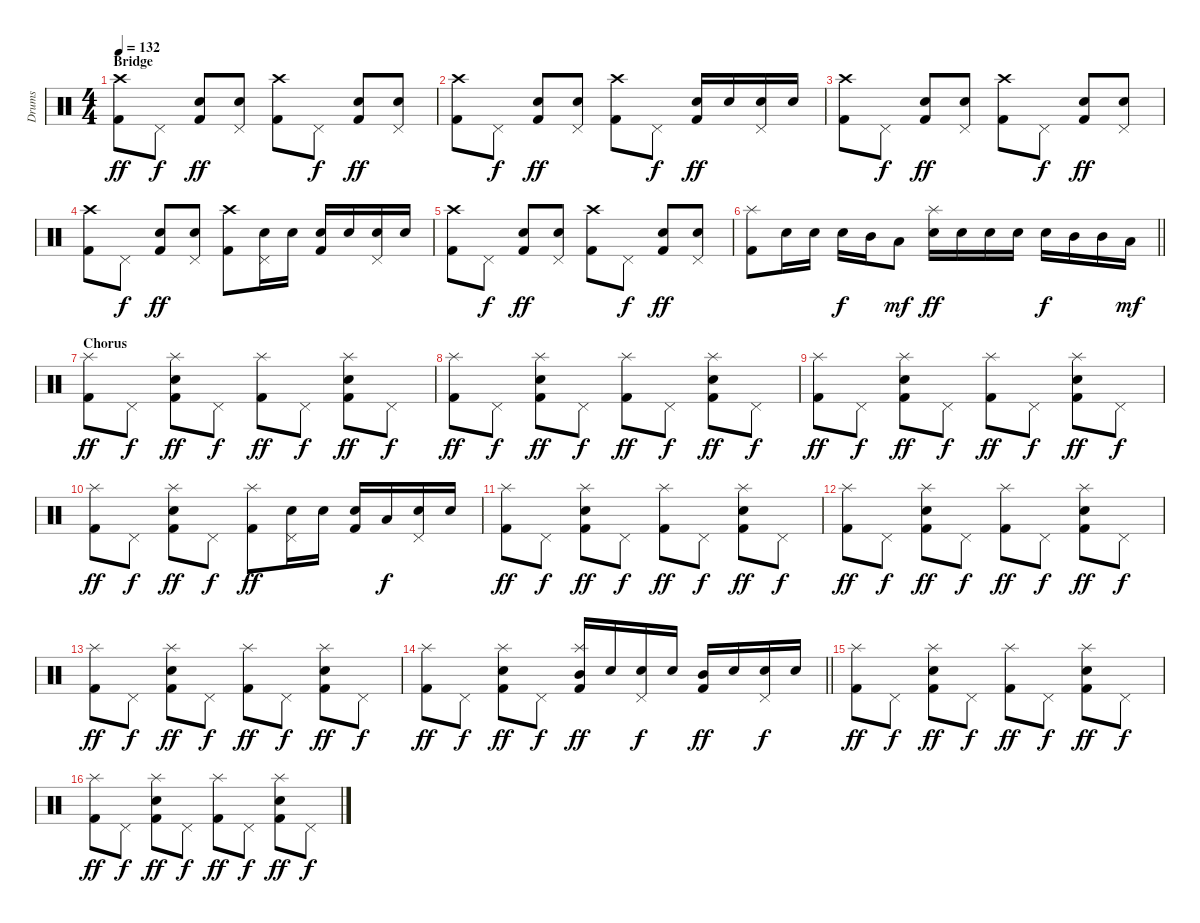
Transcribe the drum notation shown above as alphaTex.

\track ("Drums" "Drums") {instrument percussion}
\staff {score}
\articulation defaults
\ts (4 4)
\section ("" "Bridge")
\tempo 132
\clef neutral
\ks c
("Crash high (hit)" "Kick (hit) 2").8{dy ff} "Pedal Hi-Hat (hit)".8{dy f} ("Snare (hit) 2" "Kick (hit) 2").8{dy ff} ("Pedal Hi-Hat (hit)" "Snare (hit) 2").8 ("Crash high (hit)" "Kick (hit) 2").8 "Pedal Hi-Hat (hit)".8{dy f} ("Snare (hit) 2" "Kick (hit) 2").8{dy ff} ("Pedal Hi-Hat (hit)" "Snare (hit) 2").8 |
("Crash high (hit)" "Kick (hit) 2").8 "Pedal Hi-Hat (hit)".8{dy f} ("Snare (hit) 2" "Kick (hit) 2").8{dy ff} ("Pedal Hi-Hat (hit)" "Snare (hit) 2").8 ("Crash high (hit)" "Kick (hit) 2").8 "Pedal Hi-Hat (hit)".8{dy f} ("Snare (hit) 2" "Kick (hit) 2").16{dy ff} "Snare (hit) 2".16 ("Pedal Hi-Hat (hit)" "Snare (hit) 2").16 "Snare (hit) 2".16 |
("Crash high (hit)" "Kick (hit) 2").8 "Pedal Hi-Hat (hit)".8{dy f} ("Snare (hit) 2" "Kick (hit) 2").8{dy ff} ("Pedal Hi-Hat (hit)" "Snare (hit) 2").8 ("Crash high (hit)" "Kick (hit) 2").8 "Pedal Hi-Hat (hit)".8{dy f} ("Snare (hit) 2" "Kick (hit) 2").8{dy ff} ("Pedal Hi-Hat (hit)" "Snare (hit) 2").8 |
("Crash high (hit)" "Kick (hit) 2").8 "Pedal Hi-Hat (hit)".8{dy f} ("Snare (hit) 2" "Kick (hit) 2").8{dy ff} ("Pedal Hi-Hat (hit)" "Snare (hit) 2").8 ("Crash high (hit)" "Kick (hit) 2").8 ("Pedal Hi-Hat (hit)" "Snare (hit) 2").16 "Snare (hit) 2".16 ("Snare (hit) 2" "Kick (hit) 2").16 "Snare (hit) 2".16 ("Pedal Hi-Hat (hit)" "Snare (hit) 2").16 "Snare (hit) 2".16 |
("Crash high (hit)" "Kick (hit) 2").8 "Pedal Hi-Hat (hit)".8{dy f} ("Snare (hit) 2" "Kick (hit) 2").8{dy ff} ("Pedal Hi-Hat (hit)" "Snare (hit) 2").8 ("Crash high (hit)" "Kick (hit) 2").8 "Pedal Hi-Hat (hit)".8{dy f} ("Snare (hit) 2" "Kick (hit) 2").8{dy ff} ("Pedal Hi-Hat (hit)" "Snare (hit) 2").8 |
\barLineRight lightlight
("Splash (hit)" "Kick (hit) 2").8 "Snare (hit) 2".16 "Snare (hit) 2".16 "Snare (hit) 2".16{dy f} "Mid Tom (hit)".16 "Low Tom (hit)".8{dy mf} ("Splash (hit)" "Snare (hit) 2").16{dy ff} "Snare (hit) 2".16 "Snare (hit) 2".16 "Snare (hit) 2".16 "Snare (hit) 2".16{dy f} "Mid Tom (hit)".16 "Mid Tom (hit)".16 "Low Tom (hit)".16{dy mf} |
\section ("" "Chorus")
("Splash (hit)" "Kick (hit) 2").8{dy ff} "Pedal Hi-Hat (hit)".8{dy f} ("Splash (hit)" "Snare (hit) 2" "Kick (hit) 2").8{dy ff} "Pedal Hi-Hat (hit)".8{dy f} ("Splash (hit)" "Kick (hit) 2").8{dy ff} "Pedal Hi-Hat (hit)".8{dy f} ("Splash (hit)" "Snare (hit) 2" "Kick (hit) 2").8{dy ff} "Pedal Hi-Hat (hit)".8{dy f} |
("Splash (hit)" "Kick (hit) 2").8{dy ff} "Pedal Hi-Hat (hit)".8{dy f} ("Splash (hit)" "Snare (hit) 2" "Kick (hit) 2").8{dy ff} "Pedal Hi-Hat (hit)".8{dy f} ("Splash (hit)" "Kick (hit) 2").8{dy ff} "Pedal Hi-Hat (hit)".8{dy f} ("Splash (hit)" "Snare (hit) 2" "Kick (hit) 2").8{dy ff} "Pedal Hi-Hat (hit)".8{dy f} |
("Splash (hit)" "Kick (hit) 2").8{dy ff} "Pedal Hi-Hat (hit)".8{dy f} ("Splash (hit)" "Snare (hit) 2" "Kick (hit) 2").8{dy ff} "Pedal Hi-Hat (hit)".8{dy f} ("Splash (hit)" "Kick (hit) 2").8{dy ff} "Pedal Hi-Hat (hit)".8{dy f} ("Splash (hit)" "Snare (hit) 2" "Kick (hit) 2").8{dy ff} "Pedal Hi-Hat (hit)".8{dy f} |
("Splash (hit)" "Kick (hit) 2").8{dy ff} "Pedal Hi-Hat (hit)".8{dy f} ("Splash (hit)" "Snare (hit) 2" "Kick (hit) 2").8{dy ff} "Pedal Hi-Hat (hit)".8{dy f} ("Splash (hit)" "Kick (hit) 2").8{dy ff} ("Pedal Hi-Hat (hit)" "Snare (hit) 2").16 "Snare (hit) 2".16 ("Snare (hit) 2" "Kick (hit) 2").16 "Low Tom (hit)".16{dy f} ("Pedal Hi-Hat (hit)" "Snare (hit) 2").16 "Snare (hit) 2".16 |
("Splash (hit)" "Kick (hit) 2").8{dy ff} "Pedal Hi-Hat (hit)".8{dy f} ("Splash (hit)" "Snare (hit) 2" "Kick (hit) 2").8{dy ff} "Pedal Hi-Hat (hit)".8{dy f} ("Splash (hit)" "Kick (hit) 2").8{dy ff} "Pedal Hi-Hat (hit)".8{dy f} ("Splash (hit)" "Snare (hit) 2" "Kick (hit) 2").8{dy ff} "Pedal Hi-Hat (hit)".8{dy f} |
("Splash (hit)" "Kick (hit) 2").8{dy ff} "Pedal Hi-Hat (hit)".8{dy f} ("Splash (hit)" "Snare (hit) 2" "Kick (hit) 2").8{dy ff} "Pedal Hi-Hat (hit)".8{dy f} ("Splash (hit)" "Kick (hit) 2").8{dy ff} "Pedal Hi-Hat (hit)".8{dy f} ("Splash (hit)" "Snare (hit) 2" "Kick (hit) 2").8{dy ff} "Pedal Hi-Hat (hit)".8{dy f} |
("Splash (hit)" "Kick (hit) 2").8{dy ff} "Pedal Hi-Hat (hit)".8{dy f} ("Splash (hit)" "Snare (hit) 2" "Kick (hit) 2").8{dy ff} "Pedal Hi-Hat (hit)".8{dy f} ("Splash (hit)" "Kick (hit) 2").8{dy ff} "Pedal Hi-Hat (hit)".8{dy f} ("Splash (hit)" "Snare (hit) 2" "Kick (hit) 2").8{dy ff} "Pedal Hi-Hat (hit)".8{dy f} |
\barLineRight lightlight
("Splash (hit)" "Kick (hit) 2").8{dy ff} "Pedal Hi-Hat (hit)".8{dy f} ("Splash (hit)" "Snare (hit) 2" "Kick (hit) 2").8{dy ff} "Pedal Hi-Hat (hit)".8{dy f} ("Splash (hit)" "Mid Tom (hit)" "Kick (hit) 2").16{dy ff} "Snare (hit) 2".16 ("Pedal Hi-Hat (hit)" "Snare (hit) 2").16{dy f} "Snare (hit) 2".16 ("Mid Tom (hit)" "Kick (hit) 2").16{dy ff} "Snare (hit) 2".16 ("Pedal Hi-Hat (hit)" "Snare (hit) 2").16{dy f} "Snare (hit) 2".16 |
("Splash (hit)" "Kick (hit) 2").8{dy ff} "Pedal Hi-Hat (hit)".8{dy f} ("Splash (hit)" "Snare (hit) 2" "Kick (hit) 2").8{dy ff} "Pedal Hi-Hat (hit)".8{dy f} ("Splash (hit)" "Kick (hit) 2").8{dy ff} "Pedal Hi-Hat (hit)".8{dy f} ("Splash (hit)" "Snare (hit) 2" "Kick (hit) 2").8{dy ff} "Pedal Hi-Hat (hit)".8{dy f} |
("Splash (hit)" "Kick (hit) 2").8{dy ff} "Pedal Hi-Hat (hit)".8{dy f} ("Splash (hit)" "Snare (hit) 2" "Kick (hit) 2").8{dy ff} "Pedal Hi-Hat (hit)".8{dy f} ("Splash (hit)" "Kick (hit) 2").8{dy ff} "Pedal Hi-Hat (hit)".8{dy f} ("Splash (hit)" "Snare (hit) 2" "Kick (hit) 2").8{dy ff} "Pedal Hi-Hat (hit)".8{dy f}
